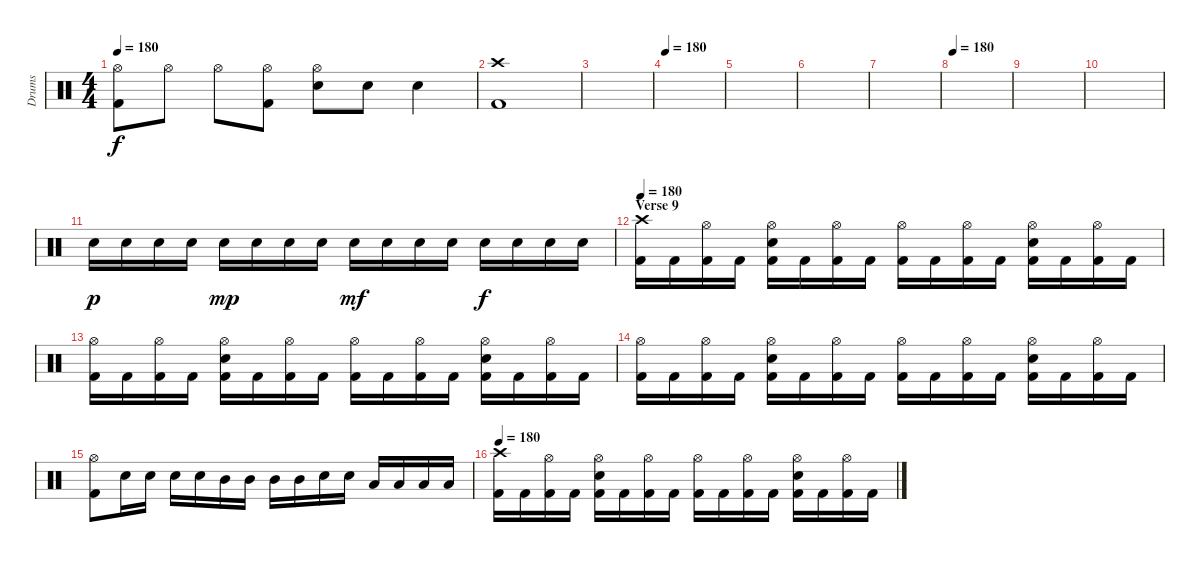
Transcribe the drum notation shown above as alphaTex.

\track ("Drums" "Drums") {instrument percussion}
\staff {score}
\articulation defaults
\ts (4 4)
\tempo 180
\clef neutral
\ks c
("Hi-Hat (open)" "Kick (hit) 2").8{dy f} "Hi-Hat (open)".8 "Hi-Hat (open)".8 ("Hi-Hat (open)" "Kick (hit) 2").8 ("Hi-Hat (open)" "Electric Snare (hit)").8 "Electric Snare (hit)".8 "Electric Snare (hit)".4 |
("Crash high (hit)" "Kick (hit) 2").1 |
|
\tempo 180
|
|
|
|
\tempo 180
|
|
|
"Electric Snare (hit)".16{dy p} "Electric Snare (hit)".16 "Electric Snare (hit)".16 "Electric Snare (hit)".16 "Electric Snare (hit)".16{dy mp} "Electric Snare (hit)".16 "Electric Snare (hit)".16 "Electric Snare (hit)".16 "Electric Snare (hit)".16{dy mf} "Electric Snare (hit)".16 "Electric Snare (hit)".16 "Electric Snare (hit)".16 "Electric Snare (hit)".16{dy f} "Electric Snare (hit)".16 "Electric Snare (hit)".16 "Electric Snare (hit)".16 |
\section ("" "Verse 9")
\tempo 180
("Crash high (hit)" "Kick (hit) 2").16 "Kick (hit) 2".16 ("Hi-Hat (open)" "Kick (hit) 2").16 "Kick (hit) 2".16 ("Hi-Hat (open)" "Electric Snare (hit)" "Kick (hit) 2").16 "Kick (hit) 2".16 ("Hi-Hat (open)" "Kick (hit) 2").16 "Kick (hit) 2".16 ("Hi-Hat (open)" "Kick (hit) 2").16 "Kick (hit) 2".16 ("Hi-Hat (open)" "Kick (hit) 2").16 "Kick (hit) 2".16 ("Hi-Hat (open)" "Electric Snare (hit)" "Kick (hit) 2").16 "Kick (hit) 2".16 ("Hi-Hat (open)" "Kick (hit) 2").16 "Kick (hit) 2".16 |
("Hi-Hat (open)" "Kick (hit) 2").16 "Kick (hit) 2".16 ("Hi-Hat (open)" "Kick (hit) 2").16 "Kick (hit) 2".16 ("Hi-Hat (open)" "Electric Snare (hit)" "Kick (hit) 2").16 "Kick (hit) 2".16 ("Hi-Hat (open)" "Kick (hit) 2").16 "Kick (hit) 2".16 ("Hi-Hat (open)" "Kick (hit) 2").16 "Kick (hit) 2".16 ("Hi-Hat (open)" "Kick (hit) 2").16 "Kick (hit) 2".16 ("Hi-Hat (open)" "Electric Snare (hit)" "Kick (hit) 2").16 "Kick (hit) 2".16 ("Hi-Hat (open)" "Kick (hit) 2").16 "Kick (hit) 2".16 |
("Hi-Hat (open)" "Kick (hit) 2").16 "Kick (hit) 2".16 ("Hi-Hat (open)" "Kick (hit) 2").16 "Kick (hit) 2".16 ("Hi-Hat (open)" "Electric Snare (hit)" "Kick (hit) 2").16 "Kick (hit) 2".16 ("Hi-Hat (open)" "Kick (hit) 2").16 "Kick (hit) 2".16 ("Hi-Hat (open)" "Kick (hit) 2").16 "Kick (hit) 2".16 ("Hi-Hat (open)" "Kick (hit) 2").16 "Kick (hit) 2".16 ("Hi-Hat (open)" "Electric Snare (hit)" "Kick (hit) 2").16 "Kick (hit) 2".16 ("Hi-Hat (open)" "Kick (hit) 2").16 "Kick (hit) 2".16 |
("Hi-Hat (open)" "Kick (hit) 2").8 "Electric Snare (hit)".16 "Electric Snare (hit)".16 "Electric Snare (hit)".16 "Electric Snare (hit)".16 "Mid Tom (hit)".16 "Mid Tom (hit)".16 "Mid Tom (hit)".16 "Mid Tom (hit)".16 "Electric Snare (hit)".16 "Electric Snare (hit)".16 "Low Tom (hit)".16 "Low Tom (hit)".16 "Low Tom (hit)".16 "Low Tom (hit)".16 |
\tempo 180
("Crash high (hit)" "Kick (hit) 2").16 "Kick (hit) 2".16 ("Hi-Hat (open)" "Kick (hit) 2").16 "Kick (hit) 2".16 ("Hi-Hat (open)" "Electric Snare (hit)" "Kick (hit) 2").16 "Kick (hit) 2".16 ("Hi-Hat (open)" "Kick (hit) 2").16 "Kick (hit) 2".16 ("Hi-Hat (open)" "Kick (hit) 2").16 "Kick (hit) 2".16 ("Hi-Hat (open)" "Kick (hit) 2").16 "Kick (hit) 2".16 ("Hi-Hat (open)" "Electric Snare (hit)" "Kick (hit) 2").16 "Kick (hit) 2".16 ("Hi-Hat (open)" "Kick (hit) 2").16 "Kick (hit) 2".16
